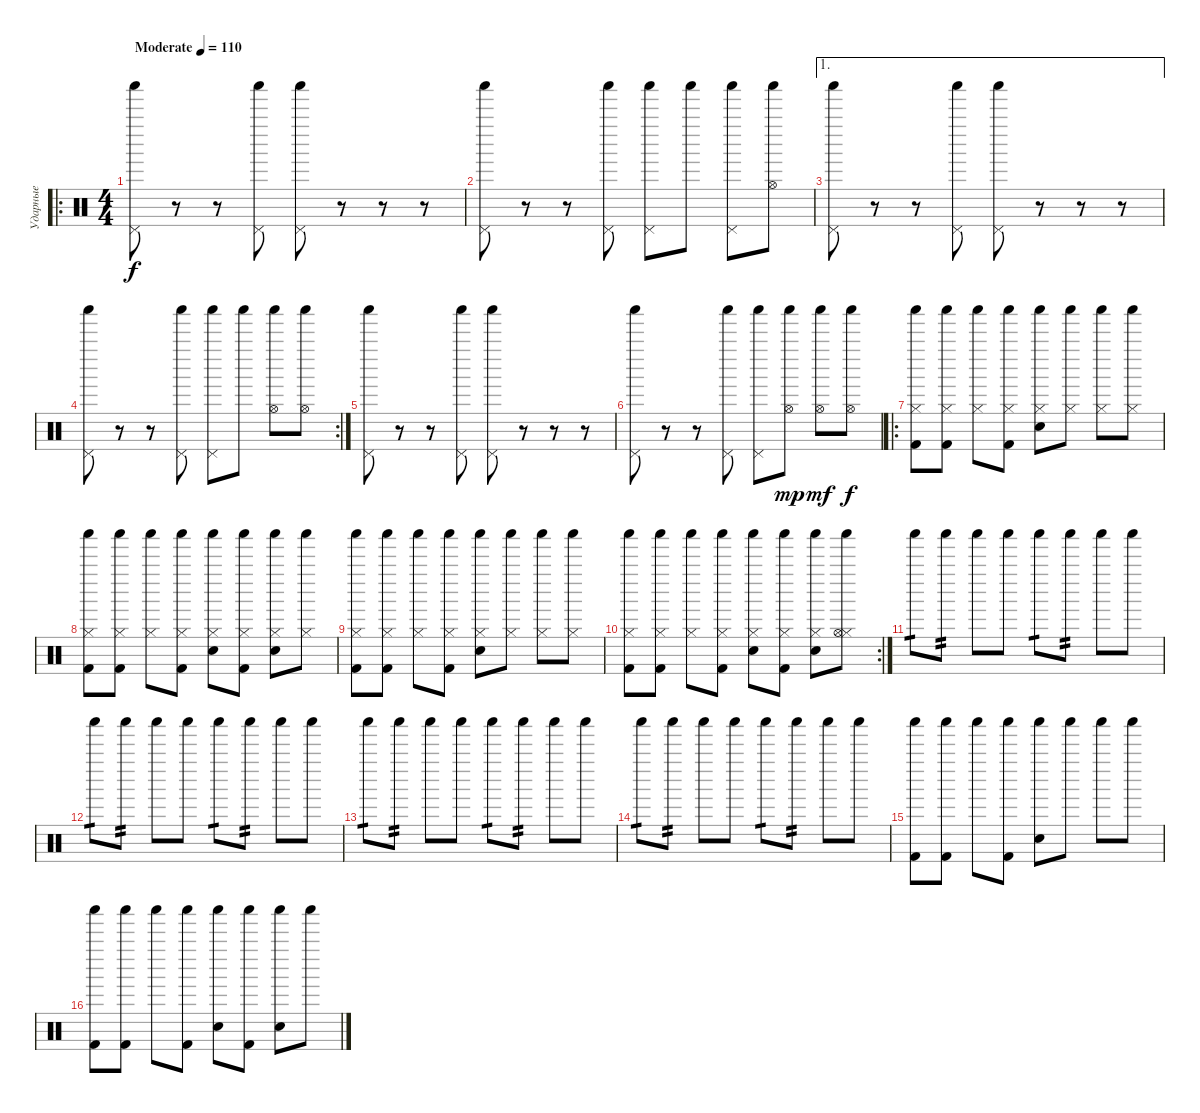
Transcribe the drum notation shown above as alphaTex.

\track ("Ударные" "Ударные") {instrument percussion}
\staff {score}
\articulation defaults
\ro
\ts (4 4)
\tempo (110 "Moderate")
\clef neutral
\ks c
("Shaker (hit)" "Pedal Hi-Hat (hit)").8{dy f} r.8 r.8 ("Shaker (hit)" "Pedal Hi-Hat (hit)").8 ("Shaker (hit)" "Pedal Hi-Hat (hit)").8 r.8 r.8 r.8 |
("Shaker (hit)" "Pedal Hi-Hat (hit)").8 r.8 r.8 ("Shaker (hit)" "Pedal Hi-Hat (hit)").8 ("Shaker (hit)" "Pedal Hi-Hat (hit)").8 "Shaker (hit)".8 ("Shaker (hit)" "Pedal Hi-Hat (hit)").8 ("Shaker (hit)" "Hi-Hat (open)").8 |
\ae 1
("Shaker (hit)" "Pedal Hi-Hat (hit)").8 r.8 r.8 ("Shaker (hit)" "Pedal Hi-Hat (hit)").8 ("Shaker (hit)" "Pedal Hi-Hat (hit)").8 r.8 r.8 r.8 |
\rc 2
("Shaker (hit)" "Pedal Hi-Hat (hit)").8 r.8 r.8 ("Shaker (hit)" "Pedal Hi-Hat (hit)").8 ("Shaker (hit)" "Pedal Hi-Hat (hit)").8 "Shaker (hit)".8 ("Shaker (hit)" "Hi-Hat (open)").8 ("Shaker (hit)" "Hi-Hat (open)").8 |
("Shaker (hit)" "Pedal Hi-Hat (hit)").8 r.8 r.8 ("Shaker (hit)" "Pedal Hi-Hat (hit)").8 ("Shaker (hit)" "Pedal Hi-Hat (hit)").8 r.8 r.8 r.8 |
("Shaker (hit)" "Pedal Hi-Hat (hit)").8 r.8 r.8 ("Shaker (hit)" "Pedal Hi-Hat (hit)").8 ("Shaker (hit)" "Pedal Hi-Hat (hit)").8 ("Shaker (hit)" "Hi-Hat (open)").8{dy mp} ("Shaker (hit)" "Hi-Hat (open)").8{dy mf} ("Shaker (hit)" "Hi-Hat (open)").8{dy f} |
\ro
("Hi-Hat (closed)" "Shaker (hit)" "Kick (hit) 2").8 ("Hi-Hat (closed)" "Shaker (hit)" "Kick (hit) 2").8 ("Hi-Hat (closed)" "Shaker (hit)").8 ("Hi-Hat (closed)" "Shaker (hit)" "Kick (hit) 2").8 ("Hi-Hat (closed)" "Shaker (hit)" "Snare (hit) 2").8 ("Hi-Hat (closed)" "Shaker (hit)").8 ("Hi-Hat (closed)" "Shaker (hit)").8 ("Hi-Hat (closed)" "Shaker (hit)").8 |
("Hi-Hat (closed)" "Shaker (hit)" "Kick (hit) 2").8 ("Hi-Hat (closed)" "Shaker (hit)" "Kick (hit) 2").8 ("Hi-Hat (closed)" "Shaker (hit)").8 ("Hi-Hat (closed)" "Shaker (hit)" "Kick (hit) 2").8 ("Hi-Hat (closed)" "Shaker (hit)" "Snare (hit) 2").8 ("Hi-Hat (closed)" "Shaker (hit)" "Kick (hit) 2").8 ("Hi-Hat (closed)" "Shaker (hit)" "Snare (hit) 2").8 ("Hi-Hat (closed)" "Shaker (hit)").8 |
("Hi-Hat (closed)" "Shaker (hit)" "Kick (hit) 2").8 ("Hi-Hat (closed)" "Shaker (hit)" "Kick (hit) 2").8 ("Hi-Hat (closed)" "Shaker (hit)").8 ("Hi-Hat (closed)" "Shaker (hit)" "Kick (hit) 2").8 ("Hi-Hat (closed)" "Shaker (hit)" "Snare (hit) 2").8 ("Hi-Hat (closed)" "Shaker (hit)").8 ("Hi-Hat (closed)" "Shaker (hit)").8 ("Hi-Hat (closed)" "Shaker (hit)").8 |
\rc 2
("Hi-Hat (closed)" "Shaker (hit)" "Kick (hit) 2").8 ("Hi-Hat (closed)" "Shaker (hit)" "Kick (hit) 2").8 ("Hi-Hat (closed)" "Shaker (hit)").8 ("Hi-Hat (closed)" "Shaker (hit)" "Kick (hit) 2").8 ("Hi-Hat (closed)" "Shaker (hit)" "Snare (hit) 2").8 ("Hi-Hat (closed)" "Shaker (hit)" "Kick (hit) 2").8 ("Hi-Hat (closed)" "Shaker (hit)" "Snare (hit) 2").8 ("Hi-Hat (closed)" "Shaker (hit)" "Hi-Hat (open)").8 |
"Shaker (hit)".8{tp 1} "Shaker (hit)".8{tp 2} "Shaker (hit)".8 "Shaker (hit)".8 "Shaker (hit)".8{tp 1} "Shaker (hit)".8{tp 2} "Shaker (hit)".8 "Shaker (hit)".8 |
"Shaker (hit)".8{tp 1} "Shaker (hit)".8{tp 2} "Shaker (hit)".8 "Shaker (hit)".8 "Shaker (hit)".8{tp 1} "Shaker (hit)".8{tp 2} "Shaker (hit)".8 "Shaker (hit)".8 |
"Shaker (hit)".8{tp 1} "Shaker (hit)".8{tp 2} "Shaker (hit)".8 "Shaker (hit)".8 "Shaker (hit)".8{tp 1} "Shaker (hit)".8{tp 2} "Shaker (hit)".8 "Shaker (hit)".8 |
"Shaker (hit)".8{tp 1} "Shaker (hit)".8{tp 2} "Shaker (hit)".8 "Shaker (hit)".8 "Shaker (hit)".8{tp 1} "Shaker (hit)".8{tp 2} "Shaker (hit)".8 "Shaker (hit)".8 |
("Shaker (hit)" "Kick (hit) 2").8 ("Shaker (hit)" "Kick (hit) 2").8 "Shaker (hit)".8 ("Shaker (hit)" "Kick (hit) 2").8 ("Shaker (hit)" "Snare (hit) 2").8 "Shaker (hit)".8 "Shaker (hit)".8 "Shaker (hit)".8 |
("Shaker (hit)" "Kick (hit) 2").8 ("Shaker (hit)" "Kick (hit) 2").8 "Shaker (hit)".8 ("Shaker (hit)" "Kick (hit) 2").8 ("Shaker (hit)" "Snare (hit) 2").8 ("Shaker (hit)" "Kick (hit) 2").8 ("Shaker (hit)" "Snare (hit) 2").8 "Shaker (hit)".8
